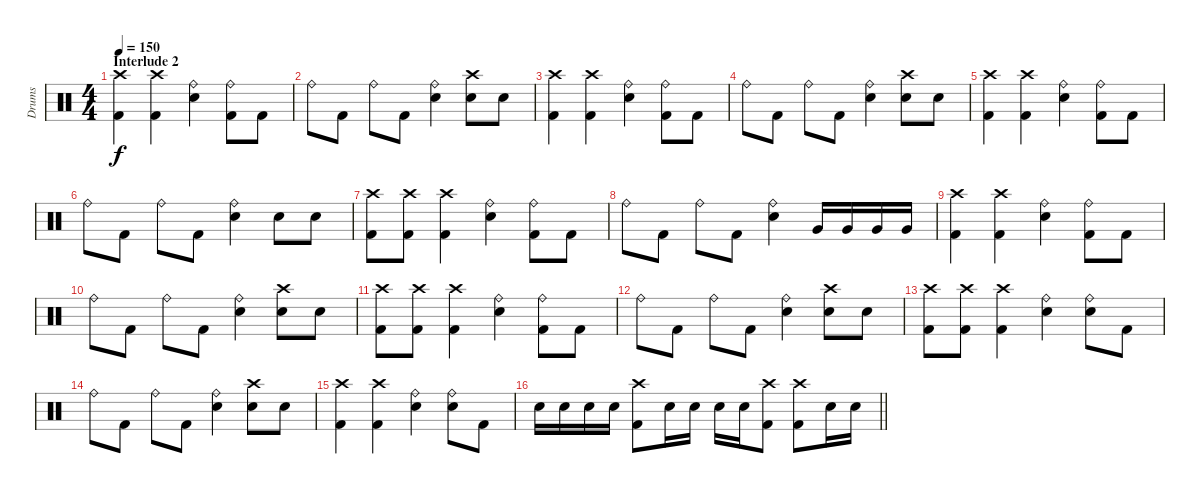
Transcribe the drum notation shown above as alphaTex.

\track ("Drums" "Drums") {instrument percussion}
\staff {score}
\articulation defaults
\ts (4 4)
\section ("" "Interlude 2")
\tempo 150
\clef neutral
\ks c
("Crash high (hit)" "Kick (hit) 2").4{dy f} ("Crash high (hit)" "Kick (hit) 2").4 ("Ride (bell)" "Electric Snare (hit)").4 ("Ride (bell)" "Kick (hit) 2").8 "Kick (hit) 2".8 |
"Ride (bell)".8 "Kick (hit) 2".8 "Ride (bell)".8 "Kick (hit) 2".8 ("Ride (bell)" "Electric Snare (hit)").4 ("Crash high (hit)" "Electric Snare (hit)").8 "Electric Snare (hit)".8 |
("Crash high (hit)" "Kick (hit) 2").4 ("Crash high (hit)" "Kick (hit) 2").4 ("Ride (bell)" "Electric Snare (hit)").4 ("Ride (bell)" "Kick (hit) 2").8 "Kick (hit) 2".8 |
"Ride (bell)".8 "Kick (hit) 2".8 "Ride (bell)".8 "Kick (hit) 2".8 ("Ride (bell)" "Electric Snare (hit)").4 ("Crash high (hit)" "Electric Snare (hit)").8 "Electric Snare (hit)".8 |
("Crash high (hit)" "Kick (hit) 2").4 ("Crash high (hit)" "Kick (hit) 2").4 ("Ride (bell)" "Electric Snare (hit)").4 ("Ride (bell)" "Kick (hit) 2").8 "Kick (hit) 2".8 |
"Ride (bell)".8 "Kick (hit) 2".8 "Ride (bell)".8 "Kick (hit) 2".8 ("Ride (bell)" "Electric Snare (hit)").4 "Electric Snare (hit)".8 "Electric Snare (hit)".8 |
("Crash high (hit)" "Kick (hit) 2").8 ("Crash high (hit)" "Kick (hit) 2").8 ("Crash high (hit)" "Kick (hit) 2").4 ("Ride (bell)" "Electric Snare (hit)").4 ("Ride (bell)" "Kick (hit) 2").8 "Kick (hit) 2".8 |
"Ride (bell)".8 "Kick (hit) 2".8 "Ride (bell)".8 "Kick (hit) 2".8 ("Ride (bell)" "Electric Snare (hit)").4 "Very Low Tom (hit)".16 "Very Low Tom (hit)".16 "Very Low Tom (hit)".16 "Very Low Tom (hit)".16 |
("Crash high (hit)" "Kick (hit) 2").4 ("Crash high (hit)" "Kick (hit) 2").4 ("Ride (bell)" "Electric Snare (hit)").4 ("Ride (bell)" "Kick (hit) 2").8 "Kick (hit) 2".8 |
"Ride (bell)".8 "Kick (hit) 2".8 "Ride (bell)".8 "Kick (hit) 2".8 ("Ride (bell)" "Electric Snare (hit)").4 ("Crash high (hit)" "Electric Snare (hit)").8 "Electric Snare (hit)".8 |
("Crash high (hit)" "Kick (hit) 2").8 ("Crash high (hit)" "Kick (hit) 2").8 ("Crash high (hit)" "Kick (hit) 2").4 ("Ride (bell)" "Electric Snare (hit)").4 ("Ride (bell)" "Kick (hit) 2").8 "Kick (hit) 2".8 |
"Ride (bell)".8 "Kick (hit) 2".8 "Ride (bell)".8 "Kick (hit) 2".8 ("Ride (bell)" "Electric Snare (hit)").4 ("Crash high (hit)" "Electric Snare (hit)").8 "Electric Snare (hit)".8 |
("Crash high (hit)" "Kick (hit) 2").8 ("Crash high (hit)" "Kick (hit) 2").8 ("Crash high (hit)" "Kick (hit) 2").4 ("Ride (bell)" "Electric Snare (hit)").4 ("Ride (bell)" "Electric Snare (hit)").8 "Kick (hit) 2".8 |
"Ride (bell)".8 "Kick (hit) 2".8 "Ride (bell)".8 "Kick (hit) 2".8 ("Ride (bell)" "Electric Snare (hit)").4 ("Crash high (hit)" "Electric Snare (hit)").8 "Electric Snare (hit)".8 |
("Crash high (hit)" "Kick (hit) 2").4 ("Crash high (hit)" "Kick (hit) 2").4 ("Ride (bell)" "Electric Snare (hit)").4 ("Ride (bell)" "Electric Snare (hit)").8 "Kick (hit) 2".8 |
\barLineRight lightlight "Electric Snare (hit)".16 "Electric Snare (hit)".16 "Electric Snare (hit)".16 "Electric Snare (hit)".16
("Crash high (hit)" "Kick (hit) 2").8 "Electric Snare (hit)".16 "Electric Snare (hit)".16 "Electric Snare (hit)".16 "Electric Snare (hit)".16 ("Crash high (hit)" "Kick (hit) 2").8 ("Crash high (hit)" "Kick (hit) 2").8 "Electric Snare (hit)".16 "Electric Snare (hit)".16
